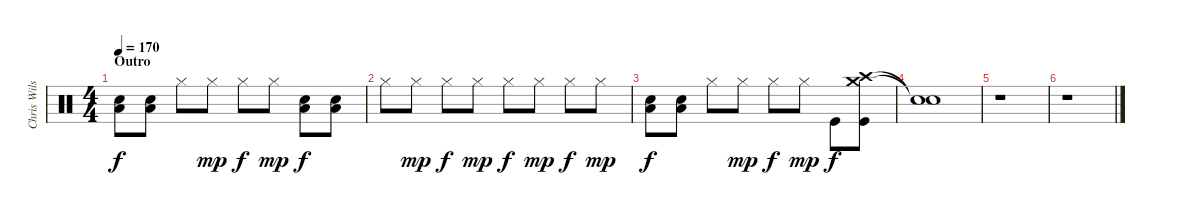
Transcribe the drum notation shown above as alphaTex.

\track ("Chris Wilson" "Chris Wils") {instrument percussion}
\staff {score}
\articulation defaults
\ts (4 4)
\section ("" "Outro")
\tempo 170
\clef neutral
\ks c
("Low Tom (hit)" "Electric Snare (hit)").8{dy f} ("Low Tom (hit)" "Electric Snare (hit)").8 "Hi-Hat (closed)".8 "Hi-Hat (closed)".8{dy mp} "Hi-Hat (closed)".8{dy f} "Hi-Hat (closed)".8{dy mp} ("Low Tom (hit)" "Electric Snare (hit)").8{dy f} ("Low Tom (hit)" "Electric Snare (hit)").8 |
"Hi-Hat (closed)".8 "Hi-Hat (closed)".8{dy mp} "Hi-Hat (closed)".8{dy f} "Hi-Hat (closed)".8{dy mp} "Hi-Hat (closed)".8{dy f} "Hi-Hat (closed)".8{dy mp} "Hi-Hat (closed)".8{dy f} "Hi-Hat (closed)".8{dy mp} |
("Low Tom (hit)" "Electric Snare (hit)").8{dy f} ("Low Tom (hit)" "Electric Snare (hit)").8 "Hi-Hat (closed)".8 "Hi-Hat (closed)".8{dy mp} "Hi-Hat (closed)".8{dy f} "Hi-Hat (closed)".8{dy mp} "Kick (hit)".8{dy f} ("Crash high (hit)" "Crash medium (hit)" "Kick (hit)").8 |
("Snare (hit)"{t} "Snare (hit)"{t}).1 |
r.1 |
r.1
